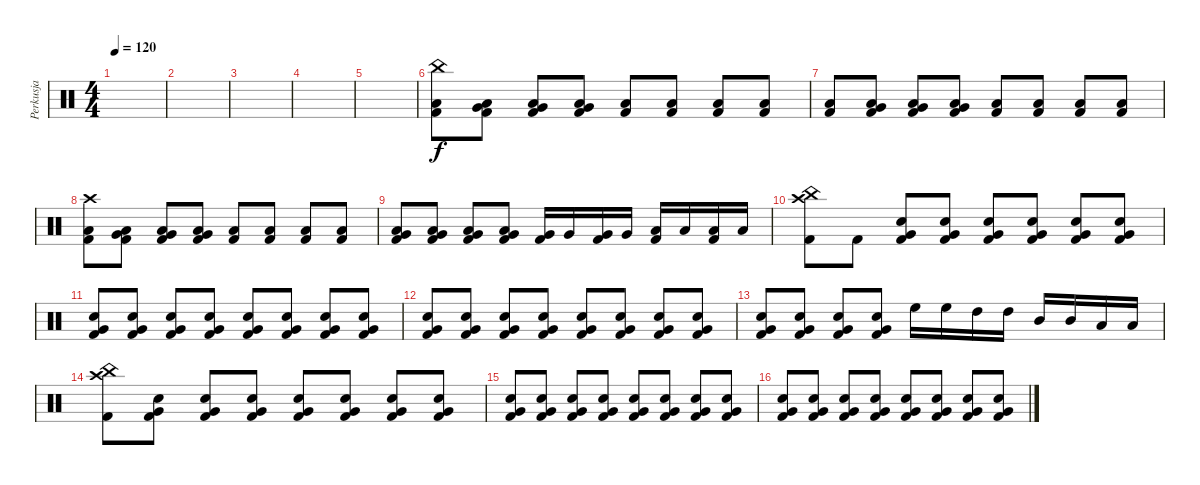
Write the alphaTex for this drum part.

\track ("Perkusja" "Perkusja") {instrument percussion}
\staff {score}
\articulation defaults
\ts (4 4)
\tempo 120
\clef neutral
\ks c
|
|
|
|
|
("China (hit)" "Kick (hit) 2" "Low Floor Tom (hit)").8 ("Kick (hit) 2" "Low Floor Tom (hit)" "Very Low Tom (hit)").8 ("Kick (hit) 2" "Low Floor Tom (hit)" "Very Low Tom (hit)").8 ("Kick (hit) 2" "Low Floor Tom (hit)" "Very Low Tom (hit)").8 ("Kick (hit) 2" "Low Floor Tom (hit)").8 ("Kick (hit) 2" "Low Floor Tom (hit)").8 ("Kick (hit) 2" "Low Floor Tom (hit)").8 ("Kick (hit) 2" "Low Floor Tom (hit)").8 |
("Kick (hit) 2" "Low Floor Tom (hit)").8 ("Kick (hit) 2" "Low Floor Tom (hit)" "Very Low Tom (hit)").8 ("Kick (hit) 2" "Low Floor Tom (hit)" "Very Low Tom (hit)").8 ("Kick (hit) 2" "Low Floor Tom (hit)" "Very Low Tom (hit)").8 ("Kick (hit) 2" "Low Floor Tom (hit)").8 ("Kick (hit) 2" "Low Floor Tom (hit)").8 ("Kick (hit) 2" "Low Floor Tom (hit)").8 ("Kick (hit) 2" "Low Floor Tom (hit)").8 |
("Crash high (hit)" "Kick (hit) 2" "Low Floor Tom (hit)").8 ("Kick (hit) 2" "Low Floor Tom (hit)" "Very Low Tom (hit)").8 ("Kick (hit) 2" "Low Floor Tom (hit)" "Very Low Tom (hit)").8 ("Kick (hit) 2" "Low Floor Tom (hit)" "Very Low Tom (hit)").8 ("Kick (hit) 2" "Low Floor Tom (hit)").8 ("Kick (hit) 2" "Low Floor Tom (hit)").8 ("Kick (hit) 2" "Low Floor Tom (hit)").8 ("Kick (hit) 2" "Low Floor Tom (hit)").8 |
("Low Floor Tom (hit)" "Kick (hit) 2" "Very Low Tom (hit)").8 ("Low Floor Tom (hit)" "Kick (hit) 2" "Very Low Tom (hit)").8 ("Low Floor Tom (hit)" "Kick (hit) 2" "Very Low Tom (hit)").8 ("Low Floor Tom (hit)" "Kick (hit) 2" "Very Low Tom (hit)").8 ("Very Low Tom (hit)" "Kick (hit) 2").16 "Very Low Tom (hit)".16 ("Very Low Tom (hit)" "Kick (hit) 2").16 "Very Low Tom (hit)".16 ("Low Floor Tom (hit)" "Kick (hit) 2").16 "Low Floor Tom (hit)".16 ("Low Floor Tom (hit)" "Kick (hit) 2").16 "Low Floor Tom (hit)".16 |
("China (hit)" "Crash high (hit)" "Kick (hit) 2").8 "Kick (hit) 2".8 ("Kick (hit) 2" "Very Low Tom (hit)" "Snare (hit) 2").8 ("Kick (hit) 2" "Very Low Tom (hit)" "Snare (hit) 2").8 ("Kick (hit) 2" "Very Low Tom (hit)" "Snare (hit) 2").8 ("Kick (hit) 2" "Very Low Tom (hit)" "Snare (hit) 2").8 ("Kick (hit) 2" "Very Low Tom (hit)" "Snare (hit) 2").8 ("Kick (hit) 2" "Very Low Tom (hit)" "Snare (hit) 2").8 |
("Very Low Tom (hit)" "Kick (hit) 2" "Snare (hit) 2").8 ("Kick (hit) 2" "Very Low Tom (hit)" "Snare (hit) 2").8 ("Kick (hit) 2" "Very Low Tom (hit)" "Snare (hit) 2").8 ("Kick (hit) 2" "Very Low Tom (hit)" "Snare (hit) 2").8 ("Kick (hit) 2" "Very Low Tom (hit)" "Snare (hit) 2").8 ("Kick (hit) 2" "Very Low Tom (hit)" "Snare (hit) 2").8 ("Kick (hit) 2" "Very Low Tom (hit)" "Snare (hit) 2").8 ("Kick (hit) 2" "Very Low Tom (hit)" "Snare (hit) 2").8 |
("Very Low Tom (hit)" "Kick (hit) 2" "Snare (hit) 2").8 ("Kick (hit) 2" "Very Low Tom (hit)" "Snare (hit) 2").8 ("Kick (hit) 2" "Very Low Tom (hit)" "Snare (hit) 2").8 ("Kick (hit) 2" "Very Low Tom (hit)" "Snare (hit) 2").8 ("Kick (hit) 2" "Very Low Tom (hit)" "Snare (hit) 2").8 ("Kick (hit) 2" "Very Low Tom (hit)" "Snare (hit) 2").8 ("Kick (hit) 2" "Very Low Tom (hit)" "Snare (hit) 2").8 ("Kick (hit) 2" "Very Low Tom (hit)" "Snare (hit) 2").8 |
("Very Low Tom (hit)" "Kick (hit) 2" "Snare (hit) 2").8 ("Kick (hit) 2" "Very Low Tom (hit)" "Snare (hit) 2").8 ("Kick (hit) 2" "Very Low Tom (hit)" "Snare (hit) 2").8 ("Kick (hit) 2" "Very Low Tom (hit)" "Snare (hit) 2").8 "High Floor Tom (hit)".16 "High Floor Tom (hit)".16 "High Tom (hit)".16 "High Tom (hit)".16 "Mid Tom (hit)".16 "Mid Tom (hit)".16 "Low Tom (hit)".16 "Low Tom (hit)".16 |
("China (hit)" "Crash high (hit)" "Kick (hit) 2").8 ("Kick (hit) 2" "Very Low Tom (hit)" "Snare (hit) 2").8 ("Kick (hit) 2" "Very Low Tom (hit)" "Snare (hit) 2").8 ("Kick (hit) 2" "Very Low Tom (hit)" "Snare (hit) 2").8 ("Kick (hit) 2" "Very Low Tom (hit)" "Snare (hit) 2").8 ("Kick (hit) 2" "Very Low Tom (hit)" "Snare (hit) 2").8 ("Kick (hit) 2" "Very Low Tom (hit)" "Snare (hit) 2").8 ("Kick (hit) 2" "Very Low Tom (hit)" "Snare (hit) 2").8 |
("Very Low Tom (hit)" "Kick (hit) 2" "Snare (hit) 2").8 ("Kick (hit) 2" "Very Low Tom (hit)" "Snare (hit) 2").8 ("Kick (hit) 2" "Very Low Tom (hit)" "Snare (hit) 2").8 ("Kick (hit) 2" "Very Low Tom (hit)" "Snare (hit) 2").8 ("Kick (hit) 2" "Very Low Tom (hit)" "Snare (hit) 2").8 ("Kick (hit) 2" "Very Low Tom (hit)" "Snare (hit) 2").8 ("Kick (hit) 2" "Very Low Tom (hit)" "Snare (hit) 2").8 ("Kick (hit) 2" "Very Low Tom (hit)" "Snare (hit) 2").8 |
("Very Low Tom (hit)" "Kick (hit) 2" "Snare (hit) 2").8 ("Kick (hit) 2" "Very Low Tom (hit)" "Snare (hit) 2").8 ("Kick (hit) 2" "Very Low Tom (hit)" "Snare (hit) 2").8 ("Kick (hit) 2" "Very Low Tom (hit)" "Snare (hit) 2").8 ("Kick (hit) 2" "Very Low Tom (hit)" "Snare (hit) 2").8 ("Kick (hit) 2" "Very Low Tom (hit)" "Snare (hit) 2").8 ("Kick (hit) 2" "Very Low Tom (hit)" "Snare (hit) 2").8 ("Kick (hit) 2" "Very Low Tom (hit)" "Snare (hit) 2").8
